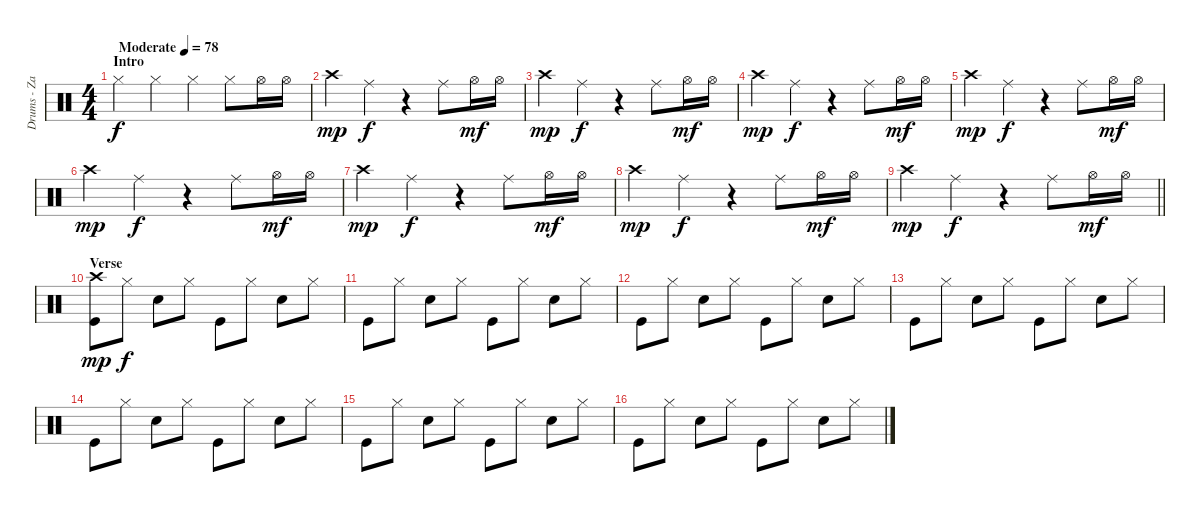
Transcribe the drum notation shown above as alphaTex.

\track ("Drums - Zakk Starkey" "Drums - Za") {instrument percussion}
\staff {score}
\articulation defaults
\ts (4 4)
\section ("" "Intro")
\tempo (78 "Moderate")
\clef neutral
\ks c "Hi-Hat (closed)".4{dy f} "Hi-Hat (closed)".4 "Hi-Hat (closed)".4 "Hi-Hat (closed)".8 "Hi-Hat (open)".16 "Hi-Hat (open)".16
|
"Crash high (hit)".4{dy mp} "Ride (middle)".4{dy f} r.4 "Ride (middle)".8 "Hi-Hat (open)".16{dy mf} "Hi-Hat (open)".16 |
"Crash high (hit)".4{dy mp} "Ride (middle)".4{dy f} r.4 "Ride (middle)".8 "Hi-Hat (open)".16{dy mf} "Hi-Hat (open)".16 |
"Crash high (hit)".4{dy mp} "Ride (middle)".4{dy f} r.4 "Ride (middle)".8 "Hi-Hat (open)".16{dy mf} "Hi-Hat (open)".16 |
"Crash high (hit)".4{dy mp} "Ride (middle)".4{dy f} r.4 "Ride (middle)".8 "Hi-Hat (open)".16{dy mf} "Hi-Hat (open)".16 |
"Crash high (hit)".4{dy mp} "Ride (middle)".4{dy f} r.4 "Ride (middle)".8 "Hi-Hat (open)".16{dy mf} "Hi-Hat (open)".16 |
"Crash high (hit)".4{dy mp} "Ride (middle)".4{dy f} r.4 "Ride (middle)".8 "Hi-Hat (open)".16{dy mf} "Hi-Hat (open)".16 |
"Crash high (hit)".4{dy mp} "Ride (middle)".4{dy f} r.4 "Ride (middle)".8 "Hi-Hat (open)".16{dy mf} "Hi-Hat (open)".16 |
\barLineRight lightlight "Crash high (hit)".4{dy mp} "Ride (middle)".4{dy f}
r.4 "Ride (middle)".8 "Hi-Hat (open)".16{dy mf} "Hi-Hat (open)".16 |
\section ("" "Verse")
("Crash high (hit)" "Kick (hit)").8{dy mp} "Hi-Hat (closed)".8{dy f} "Snare (hit) 2".8 "Hi-Hat (closed)".8 "Kick (hit)".8 "Hi-Hat (closed)".8 "Snare (hit) 2".8 "Hi-Hat (closed)".8 |
"Kick (hit)".8 "Hi-Hat (closed)".8 "Snare (hit) 2".8 "Hi-Hat (closed)".8 "Kick (hit)".8 "Hi-Hat (closed)".8 "Snare (hit) 2".8 "Hi-Hat (closed)".8 |
"Kick (hit)".8 "Hi-Hat (closed)".8 "Snare (hit) 2".8 "Hi-Hat (closed)".8 "Kick (hit)".8 "Hi-Hat (closed)".8 "Snare (hit) 2".8 "Hi-Hat (closed)".8 |
"Kick (hit)".8 "Hi-Hat (closed)".8 "Snare (hit) 2".8 "Hi-Hat (closed)".8 "Kick (hit)".8 "Hi-Hat (closed)".8 "Snare (hit) 2".8 "Hi-Hat (closed)".8 |
"Kick (hit)".8 "Hi-Hat (closed)".8 "Snare (hit) 2".8 "Hi-Hat (closed)".8 "Kick (hit)".8 "Hi-Hat (closed)".8 "Snare (hit) 2".8 "Hi-Hat (closed)".8 |
"Kick (hit)".8 "Hi-Hat (closed)".8 "Snare (hit) 2".8 "Hi-Hat (closed)".8 "Kick (hit)".8 "Hi-Hat (closed)".8 "Snare (hit) 2".8 "Hi-Hat (closed)".8 |
"Kick (hit)".8 "Hi-Hat (closed)".8 "Snare (hit) 2".8 "Hi-Hat (closed)".8 "Kick (hit)".8 "Hi-Hat (closed)".8 "Snare (hit) 2".8 "Hi-Hat (closed)".8
